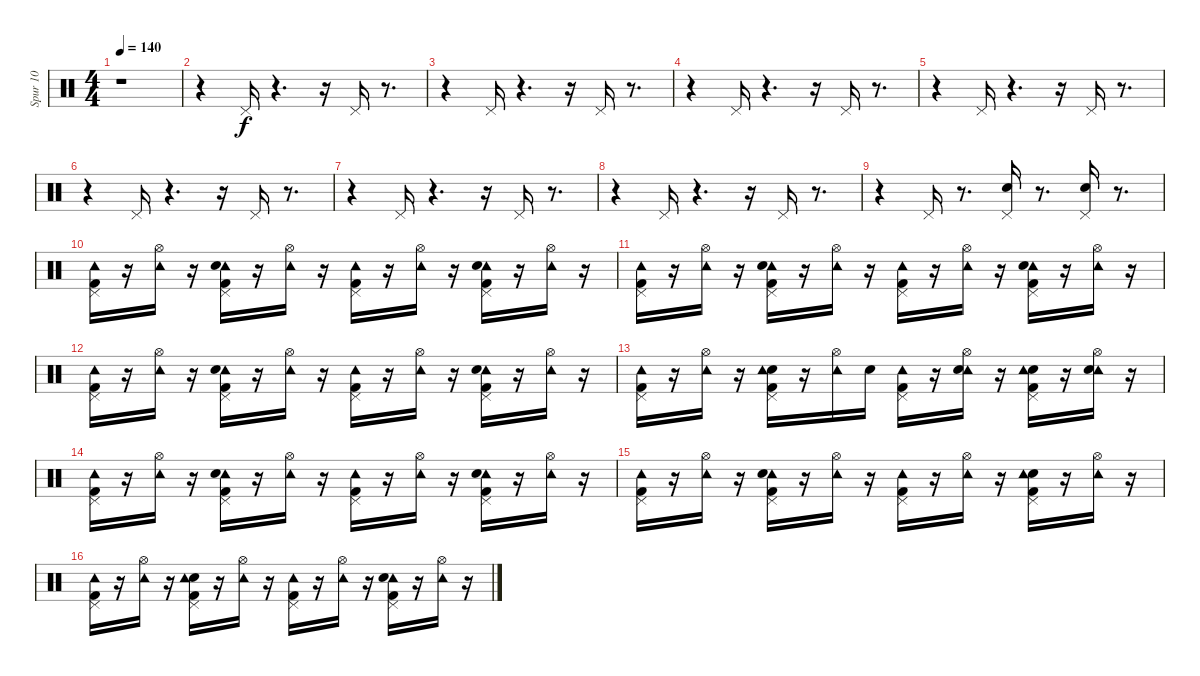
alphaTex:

\track ("Spur 10" "Spur 10") {instrument percussion}
\staff {score}
\articulation defaults
\ts (4 4)
\tempo 140
\clef neutral
\ks c
r.1{dy f} |
r.4 "Pedal Hi-Hat (hit)".16 r.4{d} r.16 "Pedal Hi-Hat (hit)".16 r.8{d} |
r.4 "Pedal Hi-Hat (hit)".16 r.4{d} r.16 "Pedal Hi-Hat (hit)".16 r.8{d} |
r.4 "Pedal Hi-Hat (hit)".16 r.4{d} r.16 "Pedal Hi-Hat (hit)".16 r.8{d} |
r.4 "Pedal Hi-Hat (hit)".16 r.4{d} r.16 "Pedal Hi-Hat (hit)".16 r.8{d} |
r.4 "Pedal Hi-Hat (hit)".16 r.4{d} r.16 "Pedal Hi-Hat (hit)".16 r.8{d} |
r.4 "Pedal Hi-Hat (hit)".16 r.4{d} r.16 "Pedal Hi-Hat (hit)".16 r.8{d} |
r.4 "Pedal Hi-Hat (hit)".16 r.4{d} r.16 "Pedal Hi-Hat (hit)".16 r.8{d} |
r.4 "Pedal Hi-Hat (hit)".16 r.8{d} ("Snare (hit) 2" "Pedal Hi-Hat (hit)").16 r.8{d} ("Pedal Hi-Hat (hit)" "Snare (hit) 2").16 r.8{d} |
("Pedal Hi-Hat (hit)" "Tambourine (hit)" "Kick (hit) 2").16 r.16 ("Tambourine (hit)" "Hi-Hat (open)").16 r.16 ("Kick (hit) 2" "Tambourine (hit)" "Snare (hit) 2" "Pedal Hi-Hat (hit)").16 r.16 ("Tambourine (hit)" "Hi-Hat (open)").16 r.16 ("Tambourine (hit)" "Pedal Hi-Hat (hit)" "Kick (hit) 2").16 r.16 ("Hi-Hat (open)" "Tambourine (hit)").16 r.16 ("Kick (hit) 2" "Tambourine (hit)" "Snare (hit) 2" "Pedal Hi-Hat (hit)").16 r.16 ("Hi-Hat (open)" "Tambourine (hit)").16 r.16 |
("Pedal Hi-Hat (hit)" "Tambourine (hit)" "Kick (hit) 2").16 r.16 ("Tambourine (hit)" "Hi-Hat (open)").16 r.16 ("Kick (hit) 2" "Pedal Hi-Hat (hit)" "Tambourine (hit)" "Snare (hit) 2").16 r.16 ("Hi-Hat (open)" "Tambourine (hit)").16 r.16 ("Tambourine (hit)" "Pedal Hi-Hat (hit)" "Kick (hit) 2").16 r.16 ("Hi-Hat (open)" "Tambourine (hit)").16 r.16 ("Kick (hit) 2" "Tambourine (hit)" "Snare (hit) 2" "Pedal Hi-Hat (hit)").16 r.16 ("Tambourine (hit)" "Hi-Hat (open)").16 r.16 |
("Tambourine (hit)" "Kick (hit) 2" "Pedal Hi-Hat (hit)").16 r.16 ("Tambourine (hit)" "Hi-Hat (open)").16 r.16 ("Kick (hit) 2" "Pedal Hi-Hat (hit)" "Tambourine (hit)" "Snare (hit) 2").16 r.16 ("Tambourine (hit)" "Hi-Hat (open)").16 r.16 ("Pedal Hi-Hat (hit)" "Kick (hit) 2" "Tambourine (hit)").16 r.16 ("Tambourine (hit)" "Hi-Hat (open)").16 r.16 ("Kick (hit) 2" "Tambourine (hit)" "Snare (hit) 2" "Pedal Hi-Hat (hit)").16 r.16 ("Tambourine (hit)" "Hi-Hat (open)").16 r.16 |
("Kick (hit) 2" "Pedal Hi-Hat (hit)" "Tambourine (hit)").16 r.16 ("Hi-Hat (open)" "Tambourine (hit)").16 r.16 ("Kick (hit) 2" "Snare (hit) 2" "Tambourine (hit)" "Pedal Hi-Hat (hit)").16 r.16 ("Hi-Hat (open)" "Tambourine (hit)").16 "Snare (hit) 2".16 ("Pedal Hi-Hat (hit)" "Tambourine (hit)" "Kick (hit) 2").16 r.16 ("Hi-Hat (open)" "Tambourine (hit)" "Snare (hit) 2").16 r.16 ("Kick (hit) 2" "Pedal Hi-Hat (hit)" "Snare (hit) 2" "Tambourine (hit)").16 r.16 ("Tambourine (hit)" "Snare (hit) 2" "Hi-Hat (open)").16 r.16 |
("Tambourine (hit)" "Kick (hit) 2" "Pedal Hi-Hat (hit)").16 r.16 ("Hi-Hat (open)" "Tambourine (hit)").16 r.16 ("Kick (hit) 2" "Tambourine (hit)" "Snare (hit) 2" "Pedal Hi-Hat (hit)").16 r.16 ("Tambourine (hit)" "Hi-Hat (open)").16 r.16 ("Pedal Hi-Hat (hit)" "Tambourine (hit)" "Kick (hit) 2").16 r.16 ("Hi-Hat (open)" "Tambourine (hit)").16 r.16 ("Kick (hit) 2" "Tambourine (hit)" "Snare (hit) 2" "Pedal Hi-Hat (hit)").16 r.16 ("Tambourine (hit)" "Hi-Hat (open)").16 r.16 |
("Pedal Hi-Hat (hit)" "Tambourine (hit)" "Kick (hit) 2").16 r.16 ("Hi-Hat (open)" "Tambourine (hit)").16 r.16 ("Kick (hit) 2" "Pedal Hi-Hat (hit)" "Tambourine (hit)" "Snare (hit) 2").16 r.16 ("Hi-Hat (open)" "Tambourine (hit)").16 r.16 ("Tambourine (hit)" "Kick (hit) 2" "Pedal Hi-Hat (hit)").16 r.16 ("Hi-Hat (open)" "Tambourine (hit)").16 r.16 ("Kick (hit) 2" "Snare (hit) 2" "Pedal Hi-Hat (hit)" "Tambourine (hit)").16 r.16 ("Tambourine (hit)" "Hi-Hat (open)").16 r.16 |
("Pedal Hi-Hat (hit)" "Tambourine (hit)" "Kick (hit) 2").16 r.16 ("Tambourine (hit)" "Hi-Hat (open)").16 r.16 ("Kick (hit) 2" "Pedal Hi-Hat (hit)" "Snare (hit) 2" "Tambourine (hit)").16 r.16 ("Hi-Hat (open)" "Tambourine (hit)").16 r.16 ("Tambourine (hit)" "Kick (hit) 2" "Pedal Hi-Hat (hit)").16 r.16 ("Tambourine (hit)" "Hi-Hat (open)").16 r.16 ("Kick (hit) 2" "Pedal Hi-Hat (hit)" "Tambourine (hit)" "Snare (hit) 2").16 r.16 ("Tambourine (hit)" "Hi-Hat (open)").16 r.16
